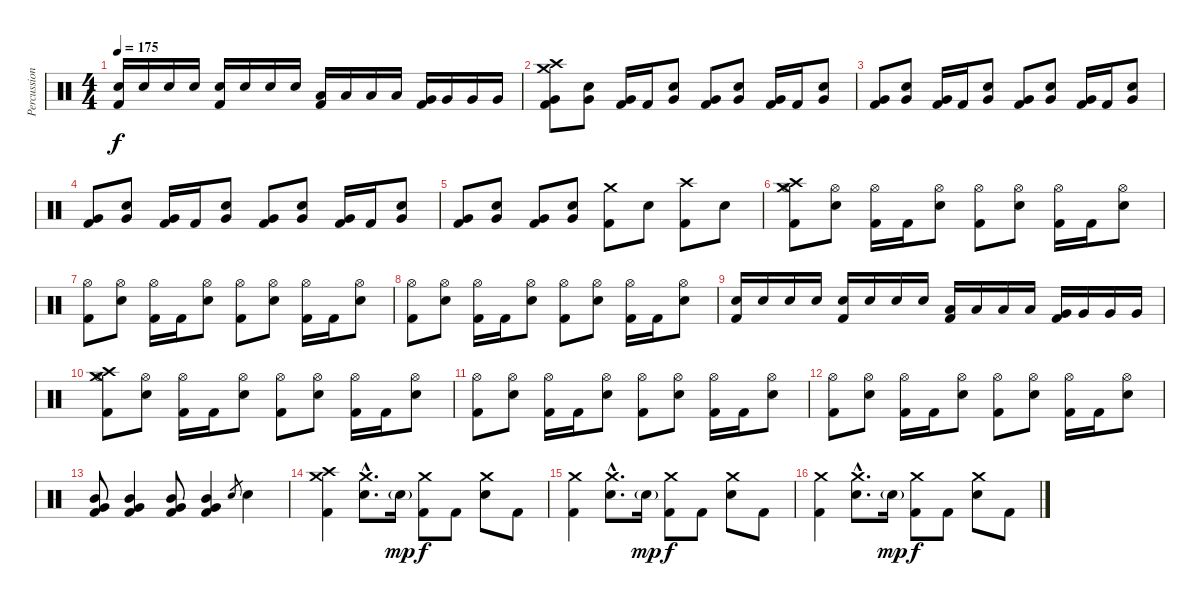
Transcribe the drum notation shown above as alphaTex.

\track ("Percussions" "Percussion") {instrument percussion}
\staff {score}
\articulation defaults
\ts (4 4)
\tempo 175
\clef neutral
\ks c
("Electric Snare (hit)" "Kick (hit) 2").16{dy f} "Electric Snare (hit)".16 "Electric Snare (hit)".16 "Electric Snare (hit)".16 ("Electric Snare (hit)" "Kick (hit) 2").16 "Electric Snare (hit)".16 "Electric Snare (hit)".16 "Electric Snare (hit)".16 ("Low Tom (hit)" "Kick (hit) 2").16 "Low Tom (hit)".16 "Low Tom (hit)".16 "Low Tom (hit)".16 ("Very Low Tom (hit)" "Kick (hit) 2").16 "Very Low Tom (hit)".16 "Very Low Tom (hit)".16 "Very Low Tom (hit)".16 |
("Very Low Tom (hit)" "Crash high (hit)" "Crash medium (hit)" "Kick (hit) 2").8 ("Very Low Tom (hit)" "Electric Snare (hit)").8 ("Very Low Tom (hit)" "Kick (hit) 2").16 "Kick (hit) 2".16 ("Very Low Tom (hit)" "Electric Snare (hit)").8 ("Very Low Tom (hit)" "Kick (hit) 2").8 ("Very Low Tom (hit)" "Electric Snare (hit)").8 ("Very Low Tom (hit)" "Kick (hit) 2").16 "Kick (hit) 2".16 ("Very Low Tom (hit)" "Electric Snare (hit)").8 |
("Very Low Tom (hit)" "Kick (hit) 2").8 ("Very Low Tom (hit)" "Electric Snare (hit)").8 ("Very Low Tom (hit)" "Kick (hit) 2").16 "Kick (hit) 2".16 ("Very Low Tom (hit)" "Electric Snare (hit)").8 ("Very Low Tom (hit)" "Kick (hit) 2").8 ("Very Low Tom (hit)" "Electric Snare (hit)").8 ("Very Low Tom (hit)" "Kick (hit) 2").16 "Kick (hit) 2".16 ("Very Low Tom (hit)" "Electric Snare (hit)").8 |
("Very Low Tom (hit)" "Kick (hit) 2").8 ("Very Low Tom (hit)" "Electric Snare (hit)").8 ("Very Low Tom (hit)" "Kick (hit) 2").16 "Kick (hit) 2".16 ("Very Low Tom (hit)" "Electric Snare (hit)").8 ("Very Low Tom (hit)" "Kick (hit) 2").8 ("Very Low Tom (hit)" "Electric Snare (hit)").8 ("Very Low Tom (hit)" "Kick (hit) 2").16 "Kick (hit) 2".16 ("Very Low Tom (hit)" "Electric Snare (hit)").8 |
("Very Low Tom (hit)" "Kick (hit) 2").8 ("Very Low Tom (hit)" "Electric Snare (hit)").8 ("Very Low Tom (hit)" "Kick (hit) 2").8 ("Very Low Tom (hit)" "Electric Snare (hit)").8 ("Crash medium (hit)" "Kick (hit) 2").8 "Electric Snare (hit)".8 ("Crash high (hit)" "Kick (hit) 2").8 "Electric Snare (hit)".8 |
("Hi-Hat (open)" "Crash high (hit)" "Crash medium (hit)" "Kick (hit) 2").8 ("Hi-Hat (open)" "Electric Snare (hit)").8 ("Hi-Hat (open)" "Kick (hit) 2").16 "Kick (hit) 2".16 ("Hi-Hat (open)" "Electric Snare (hit)").8 ("Hi-Hat (open)" "Kick (hit) 2").8 ("Hi-Hat (open)" "Electric Snare (hit)").8 ("Hi-Hat (open)" "Kick (hit) 2").16 "Kick (hit) 2".16 ("Hi-Hat (open)" "Electric Snare (hit)").8 |
("Hi-Hat (open)" "Kick (hit) 2").8 ("Hi-Hat (open)" "Electric Snare (hit)").8 ("Hi-Hat (open)" "Kick (hit) 2").16 "Kick (hit) 2".16 ("Hi-Hat (open)" "Electric Snare (hit)").8 ("Hi-Hat (open)" "Kick (hit) 2").8 ("Hi-Hat (open)" "Electric Snare (hit)").8 ("Hi-Hat (open)" "Kick (hit) 2").16 "Kick (hit) 2".16 ("Hi-Hat (open)" "Electric Snare (hit)").8 |
("Hi-Hat (open)" "Kick (hit) 2").8 ("Hi-Hat (open)" "Electric Snare (hit)").8 ("Hi-Hat (open)" "Kick (hit) 2").16 "Kick (hit) 2".16 ("Hi-Hat (open)" "Electric Snare (hit)").8 ("Hi-Hat (open)" "Kick (hit) 2").8 ("Hi-Hat (open)" "Electric Snare (hit)").8 ("Hi-Hat (open)" "Kick (hit) 2").16 "Kick (hit) 2".16 ("Hi-Hat (open)" "Electric Snare (hit)").8 |
("Electric Snare (hit)" "Kick (hit) 2").16 "Electric Snare (hit)".16 "Electric Snare (hit)".16 "Electric Snare (hit)".16 ("Electric Snare (hit)" "Kick (hit) 2").16 "Electric Snare (hit)".16 "Electric Snare (hit)".16 "Electric Snare (hit)".16 ("Low Tom (hit)" "Kick (hit) 2").16 "Low Tom (hit)".16 "Low Tom (hit)".16 "Low Tom (hit)".16 ("Very Low Tom (hit)" "Kick (hit) 2").16 "Very Low Tom (hit)".16 "Very Low Tom (hit)".16 "Very Low Tom (hit)".16 |
("Hi-Hat (open)" "Crash high (hit)" "Crash medium (hit)" "Kick (hit) 2").8 ("Hi-Hat (open)" "Electric Snare (hit)").8 ("Hi-Hat (open)" "Kick (hit) 2").16 "Kick (hit) 2".16 ("Hi-Hat (open)" "Electric Snare (hit)").8 ("Hi-Hat (open)" "Kick (hit) 2").8 ("Hi-Hat (open)" "Electric Snare (hit)").8 ("Hi-Hat (open)" "Kick (hit) 2").16 "Kick (hit) 2".16 ("Hi-Hat (open)" "Electric Snare (hit)").8 |
("Hi-Hat (open)" "Kick (hit) 2").8 ("Hi-Hat (open)" "Electric Snare (hit)").8 ("Hi-Hat (open)" "Kick (hit) 2").16 "Kick (hit) 2".16 ("Hi-Hat (open)" "Electric Snare (hit)").8 ("Hi-Hat (open)" "Kick (hit) 2").8 ("Hi-Hat (open)" "Electric Snare (hit)").8 ("Hi-Hat (open)" "Kick (hit) 2").16 "Kick (hit) 2".16 ("Hi-Hat (open)" "Electric Snare (hit)").8 |
("Hi-Hat (open)" "Kick (hit) 2").8 ("Hi-Hat (open)" "Electric Snare (hit)").8 ("Hi-Hat (open)" "Kick (hit) 2").16 "Kick (hit) 2".16 ("Hi-Hat (open)" "Electric Snare (hit)").8 ("Hi-Hat (open)" "Kick (hit) 2").8 ("Hi-Hat (open)" "Electric Snare (hit)").8 ("Hi-Hat (open)" "Kick (hit) 2").16 "Kick (hit) 2".16 ("Hi-Hat (open)" "Electric Snare (hit)").8 |
("Very Low Tom (hit)" "Mid Tom (hit)" "Kick (hit) 2").8 ("Very Low Tom (hit)" "Mid Tom (hit)" "Kick (hit) 2").4 ("Very Low Tom (hit)" "Mid Tom (hit)" "Kick (hit) 2").8 ("Very Low Tom (hit)" "Mid Tom (hit)" "Kick (hit) 2").4 "Electric Snare (hit)".8{gr} "Electric Snare (hit)".4 |
("Crash medium (hit)" "Crash high (hit)" "Kick (hit) 2").4 ("Crash medium (hit)"{hac} "Electric Snare (hit)"{hac}).8{d} "Electric Snare (hit)"{g}.16{dy mp} ("Crash medium (hit)" "Kick (hit) 2").8{dy f} "Kick (hit) 2".8 ("Crash medium (hit)" "Electric Snare (hit)").8 "Kick (hit) 2".8 |
("Crash medium (hit)" "Kick (hit) 2").4 ("Crash medium (hit)"{hac} "Electric Snare (hit)"{hac}).8{d} "Electric Snare (hit)"{g}.16{dy mp} ("Crash medium (hit)" "Kick (hit) 2").8{dy f} "Kick (hit) 2".8 ("Crash medium (hit)" "Electric Snare (hit)").8 "Kick (hit) 2".8 |
("Crash medium (hit)" "Kick (hit) 2").4 ("Crash medium (hit)"{hac} "Electric Snare (hit)"{hac}).8{d} "Electric Snare (hit)"{g}.16{dy mp} ("Crash medium (hit)" "Kick (hit) 2").8{dy f} "Kick (hit) 2".8 ("Crash medium (hit)" "Electric Snare (hit)").8 "Kick (hit) 2".8
